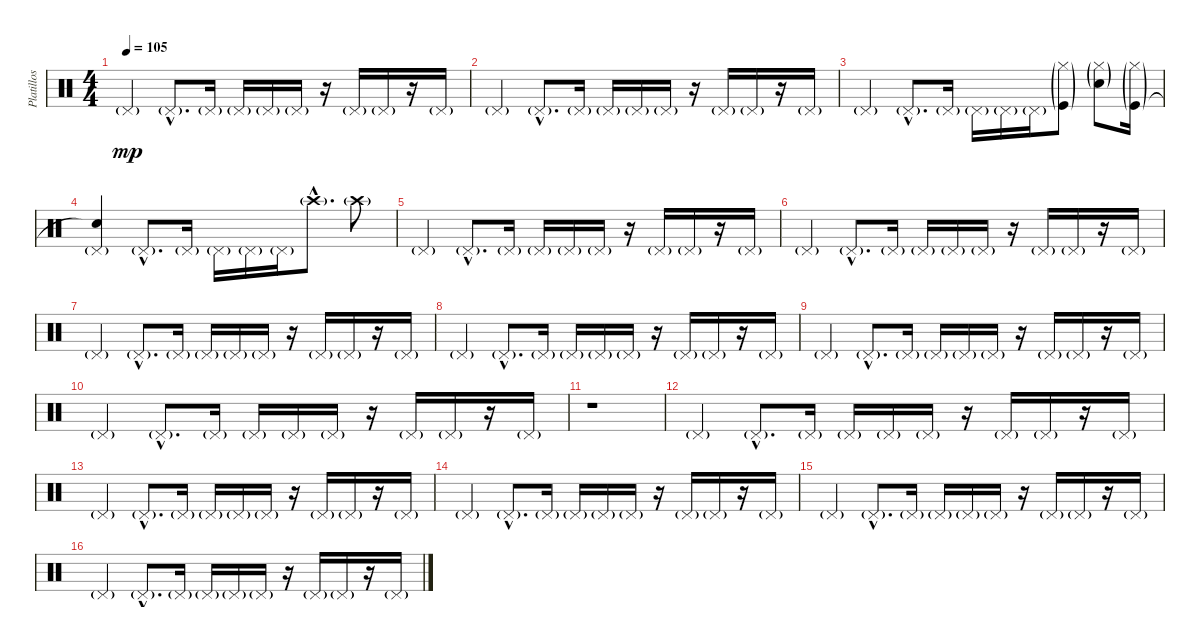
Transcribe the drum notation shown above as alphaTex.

\track ("Platillos" "Platillos") {instrument percussion}
\staff {score}
\articulation defaults
\ts (4 4)
\tempo 105
\clef neutral
\ks c "Pedal Hi-Hat (hit)"{g}.4{dy mp} "Pedal Hi-Hat (hit)"{g hac}.8{d} "Pedal Hi-Hat (hit)"{g}.16 "Pedal Hi-Hat (hit)"{g}.16 "Pedal Hi-Hat (hit)"{g}.16 "Pedal Hi-Hat (hit)"{g}.16
r.16 "Pedal Hi-Hat (hit)"{g}.16 "Pedal Hi-Hat (hit)"{g}.16 r.16 "Pedal Hi-Hat (hit)"{g}.16 |
"Pedal Hi-Hat (hit)"{g}.4 "Pedal Hi-Hat (hit)"{g hac}.8{d} "Pedal Hi-Hat (hit)"{g}.16 "Pedal Hi-Hat (hit)"{g}.16 "Pedal Hi-Hat (hit)"{g}.16 "Pedal Hi-Hat (hit)"{g}.16 r.16 "Pedal Hi-Hat (hit)"{g}.16 "Pedal Hi-Hat (hit)"{g}.16 r.16 "Pedal Hi-Hat (hit)"{g}.16 |
"Pedal Hi-Hat (hit)"{g}.4 "Pedal Hi-Hat (hit)"{g hac}.8{d} "Pedal Hi-Hat (hit)"{g}.16 "Pedal Hi-Hat (hit)"{g}.16 "Pedal Hi-Hat (hit)"{g}.16 "Pedal Hi-Hat (hit)"{g}.16 ("Hi-Hat (closed)"{g} "Kick (hit)"{g}).8 ("Hi-Hat (closed)"{g} "Snare (hit) 2"{g}).8 ("Hi-Hat (closed)"{g} "Kick (hit)"{g}).16 |
("Pedal Hi-Hat (hit)"{g} "Snare (hit)"{t}).4 "Pedal Hi-Hat (hit)"{g hac}.8{d} "Pedal Hi-Hat (hit)"{g}.16 "Pedal Hi-Hat (hit)"{g}.16 "Pedal Hi-Hat (hit)"{g}.16 "Pedal Hi-Hat (hit)"{g}.16 "Crash high (hit)"{g hac}.8{d} "Crash high (hit)"{g}.8 |
"Pedal Hi-Hat (hit)"{g}.4 "Pedal Hi-Hat (hit)"{g hac}.8{d} "Pedal Hi-Hat (hit)"{g}.16 "Pedal Hi-Hat (hit)"{g}.16 "Pedal Hi-Hat (hit)"{g}.16 "Pedal Hi-Hat (hit)"{g}.16 r.16 "Pedal Hi-Hat (hit)"{g}.16 "Pedal Hi-Hat (hit)"{g}.16 r.16 "Pedal Hi-Hat (hit)"{g}.16 |
"Pedal Hi-Hat (hit)"{g}.4 "Pedal Hi-Hat (hit)"{g hac}.8{d} "Pedal Hi-Hat (hit)"{g}.16 "Pedal Hi-Hat (hit)"{g}.16 "Pedal Hi-Hat (hit)"{g}.16 "Pedal Hi-Hat (hit)"{g}.16 r.16 "Pedal Hi-Hat (hit)"{g}.16 "Pedal Hi-Hat (hit)"{g}.16 r.16 "Pedal Hi-Hat (hit)"{g}.16 |
"Pedal Hi-Hat (hit)"{g}.4 "Pedal Hi-Hat (hit)"{g hac}.8{d} "Pedal Hi-Hat (hit)"{g}.16 "Pedal Hi-Hat (hit)"{g}.16 "Pedal Hi-Hat (hit)"{g}.16 "Pedal Hi-Hat (hit)"{g}.16 r.16 "Pedal Hi-Hat (hit)"{g}.16 "Pedal Hi-Hat (hit)"{g}.16 r.16 "Pedal Hi-Hat (hit)"{g}.16 |
"Pedal Hi-Hat (hit)"{g}.4 "Pedal Hi-Hat (hit)"{g hac}.8{d} "Pedal Hi-Hat (hit)"{g}.16 "Pedal Hi-Hat (hit)"{g}.16 "Pedal Hi-Hat (hit)"{g}.16 "Pedal Hi-Hat (hit)"{g}.16 r.16 "Pedal Hi-Hat (hit)"{g}.16 "Pedal Hi-Hat (hit)"{g}.16 r.16 "Pedal Hi-Hat (hit)"{g}.16 |
"Pedal Hi-Hat (hit)"{g}.4 "Pedal Hi-Hat (hit)"{g hac}.8{d} "Pedal Hi-Hat (hit)"{g}.16 "Pedal Hi-Hat (hit)"{g}.16 "Pedal Hi-Hat (hit)"{g}.16 "Pedal Hi-Hat (hit)"{g}.16 r.16 "Pedal Hi-Hat (hit)"{g}.16 "Pedal Hi-Hat (hit)"{g}.16 r.16 "Pedal Hi-Hat (hit)"{g}.16 |
"Pedal Hi-Hat (hit)"{g}.4 "Pedal Hi-Hat (hit)"{g hac}.8{d} "Pedal Hi-Hat (hit)"{g}.16 "Pedal Hi-Hat (hit)"{g}.16 "Pedal Hi-Hat (hit)"{g}.16 "Pedal Hi-Hat (hit)"{g}.16 r.16 "Pedal Hi-Hat (hit)"{g}.16 "Pedal Hi-Hat (hit)"{g}.16 r.16 "Pedal Hi-Hat (hit)"{g}.16 |
r.1 |
"Pedal Hi-Hat (hit)"{g}.4 "Pedal Hi-Hat (hit)"{g hac}.8{d} "Pedal Hi-Hat (hit)"{g}.16 "Pedal Hi-Hat (hit)"{g}.16 "Pedal Hi-Hat (hit)"{g}.16 "Pedal Hi-Hat (hit)"{g}.16 r.16 "Pedal Hi-Hat (hit)"{g}.16 "Pedal Hi-Hat (hit)"{g}.16 r.16 "Pedal Hi-Hat (hit)"{g}.16 |
"Pedal Hi-Hat (hit)"{g}.4 "Pedal Hi-Hat (hit)"{g hac}.8{d} "Pedal Hi-Hat (hit)"{g}.16 "Pedal Hi-Hat (hit)"{g}.16 "Pedal Hi-Hat (hit)"{g}.16 "Pedal Hi-Hat (hit)"{g}.16 r.16 "Pedal Hi-Hat (hit)"{g}.16 "Pedal Hi-Hat (hit)"{g}.16 r.16 "Pedal Hi-Hat (hit)"{g}.16 |
"Pedal Hi-Hat (hit)"{g}.4 "Pedal Hi-Hat (hit)"{g hac}.8{d} "Pedal Hi-Hat (hit)"{g}.16 "Pedal Hi-Hat (hit)"{g}.16 "Pedal Hi-Hat (hit)"{g}.16 "Pedal Hi-Hat (hit)"{g}.16 r.16 "Pedal Hi-Hat (hit)"{g}.16 "Pedal Hi-Hat (hit)"{g}.16 r.16 "Pedal Hi-Hat (hit)"{g}.16 |
"Pedal Hi-Hat (hit)"{g}.4 "Pedal Hi-Hat (hit)"{g hac}.8{d} "Pedal Hi-Hat (hit)"{g}.16 "Pedal Hi-Hat (hit)"{g}.16 "Pedal Hi-Hat (hit)"{g}.16 "Pedal Hi-Hat (hit)"{g}.16 r.16 "Pedal Hi-Hat (hit)"{g}.16 "Pedal Hi-Hat (hit)"{g}.16 r.16 "Pedal Hi-Hat (hit)"{g}.16 |
"Pedal Hi-Hat (hit)"{g}.4 "Pedal Hi-Hat (hit)"{g hac}.8{d} "Pedal Hi-Hat (hit)"{g}.16 "Pedal Hi-Hat (hit)"{g}.16 "Pedal Hi-Hat (hit)"{g}.16 "Pedal Hi-Hat (hit)"{g}.16 r.16 "Pedal Hi-Hat (hit)"{g}.16 "Pedal Hi-Hat (hit)"{g}.16 r.16 "Pedal Hi-Hat (hit)"{g}.16
